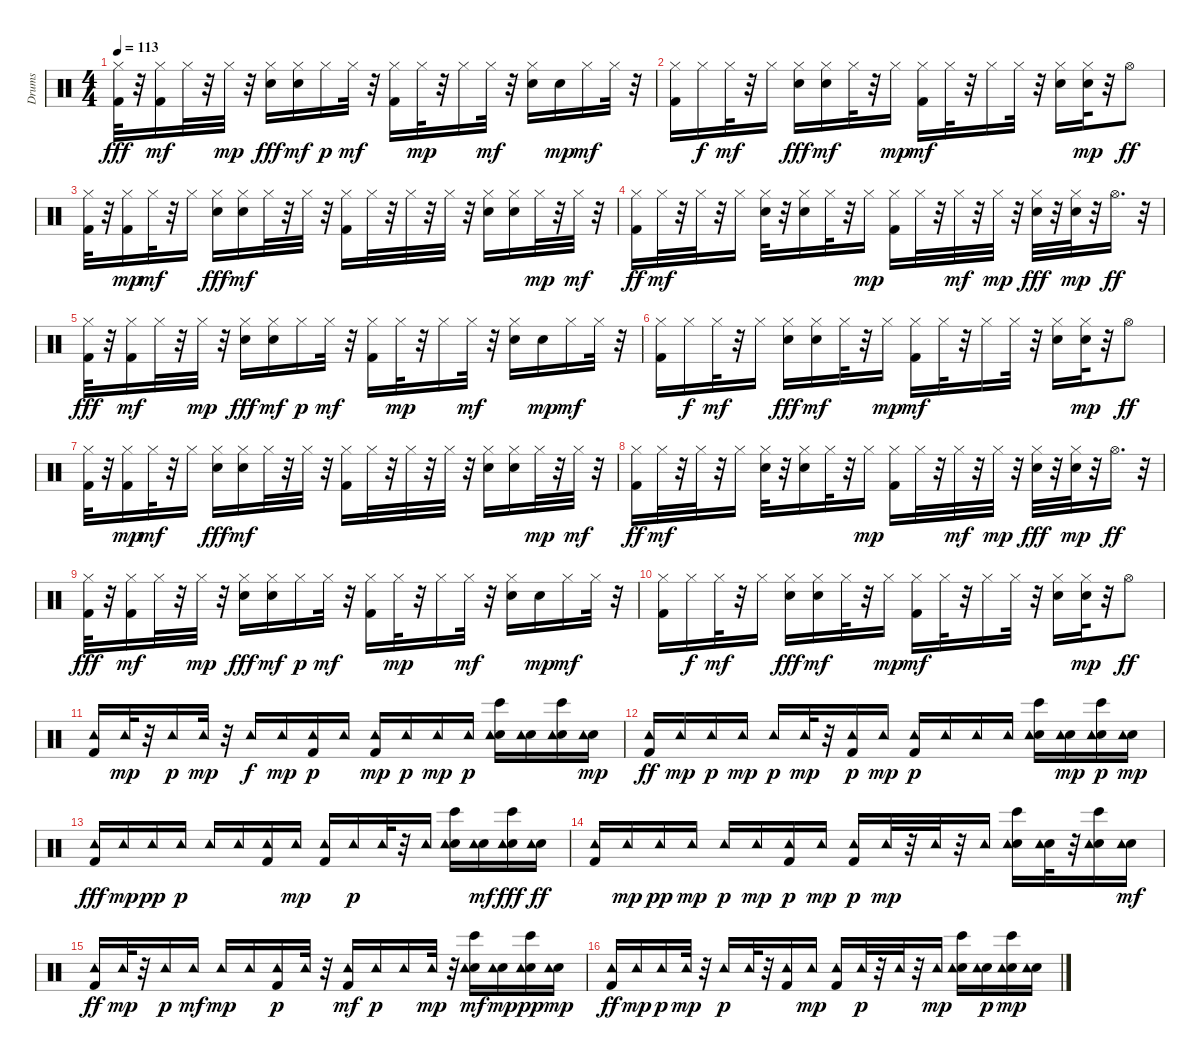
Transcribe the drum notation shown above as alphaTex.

\track ("Drums" "Drums") {instrument percussion}
\staff {score}
\articulation defaults
\ts (4 4)
\tempo 113
\clef neutral
\ks c
("Kick (hit) 2" "Hi-Hat (closed)").32{dy fff} r.32 ("Kick (hit) 2" "Hi-Hat (closed)").16{dy mf} "Hi-Hat (closed)".32 r.32 "Hi-Hat (closed)".32{dy mp} r.32 ("Electric Snare (hit)" "Hi-Hat (closed)").16{dy fff} ("Electric Snare (hit)" "Hi-Hat (closed)").16{dy mf} "Hi-Hat (closed)".16{dy p} "Hi-Hat (closed)".32{dy mf} r.32 ("Kick (hit) 2" "Hi-Hat (closed)").16 "Hi-Hat (closed)".32{dy mp} r.32 "Hi-Hat (closed)".16 "Hi-Hat (closed)".32{dy mf} r.32 ("Electric Snare (hit)" "Hi-Hat (closed)").16 "Electric Snare (hit)".16{dy mp} "Hi-Hat (closed)".16{dy mf} "Hi-Hat (closed)".32 r.32 |
("Kick (hit) 2" "Hi-Hat (closed)").16 "Hi-Hat (closed)".16{dy f} "Hi-Hat (closed)".32{dy mf} r.32 "Hi-Hat (closed)".16 ("Electric Snare (hit)" "Hi-Hat (closed)").16{dy fff} ("Electric Snare (hit)" "Hi-Hat (closed)").16{dy mf} "Hi-Hat (closed)".32 r.32 "Hi-Hat (closed)".16{dy mp} ("Kick (hit) 2" "Hi-Hat (closed)").16{dy mf} "Hi-Hat (closed)".32 r.32 "Hi-Hat (closed)".16 "Hi-Hat (closed)".32 r.32 ("Electric Snare (hit)" "Hi-Hat (closed)").16 ("Electric Snare (hit)" "Hi-Hat (closed)").32{dy mp} r.32 "Hi-Hat (open)".8{dy ff} |
("Kick (hit) 2" "Hi-Hat (closed)").32 r.32 ("Kick (hit) 2" "Hi-Hat (closed)").16{dy mp} "Hi-Hat (closed)".32{dy mf} r.32 "Hi-Hat (closed)".16 ("Electric Snare (hit)" "Hi-Hat (closed)").16{dy fff} ("Electric Snare (hit)" "Hi-Hat (closed)").16{dy mf} "Hi-Hat (closed)".32 r.32 "Hi-Hat (closed)".32 r.32 ("Kick (hit) 2" "Hi-Hat (closed)").16 "Hi-Hat (closed)".32 r.32 "Hi-Hat (closed)".32 r.32 "Hi-Hat (closed)".32 r.32 ("Electric Snare (hit)" "Hi-Hat (closed)").16 ("Electric Snare (hit)" "Hi-Hat (closed)").16 "Hi-Hat (closed)".32{dy mp} r.32 "Hi-Hat (closed)".32{dy mf} r.32 |
("Kick (hit) 2" "Hi-Hat (closed)").16{dy ff} "Hi-Hat (closed)".32{dy mf} r.32 "Hi-Hat (closed)".32 r.32 "Hi-Hat (closed)".16 ("Electric Snare (hit)" "Hi-Hat (closed)").32 r.32 ("Electric Snare (hit)" "Hi-Hat (closed)").16 "Hi-Hat (closed)".32 r.32 "Hi-Hat (closed)".16{dy mp} ("Kick (hit) 2" "Hi-Hat (closed)").16 "Hi-Hat (closed)".32 r.32 "Hi-Hat (closed)".32{dy mf} r.32 "Hi-Hat (closed)".32{dy mp} r.32 ("Electric Snare (hit)" "Hi-Hat (closed)").32{dy fff} r.32 ("Electric Snare (hit)" "Hi-Hat (closed)").32{dy mp} r.32 "Hi-Hat (open)".16{d dy ff} r.32 |
("Kick (hit) 2" "Hi-Hat (closed)").32{dy fff} r.32 ("Kick (hit) 2" "Hi-Hat (closed)").16{dy mf} "Hi-Hat (closed)".32 r.32 "Hi-Hat (closed)".32{dy mp} r.32 ("Electric Snare (hit)" "Hi-Hat (closed)").16{dy fff} ("Electric Snare (hit)" "Hi-Hat (closed)").16{dy mf} "Hi-Hat (closed)".16{dy p} "Hi-Hat (closed)".32{dy mf} r.32 ("Kick (hit) 2" "Hi-Hat (closed)").16 "Hi-Hat (closed)".32{dy mp} r.32 "Hi-Hat (closed)".16 "Hi-Hat (closed)".32{dy mf} r.32 ("Electric Snare (hit)" "Hi-Hat (closed)").16 "Electric Snare (hit)".16{dy mp} "Hi-Hat (closed)".16{dy mf} "Hi-Hat (closed)".32 r.32 |
("Kick (hit) 2" "Hi-Hat (closed)").16 "Hi-Hat (closed)".16{dy f} "Hi-Hat (closed)".32{dy mf} r.32 "Hi-Hat (closed)".16 ("Electric Snare (hit)" "Hi-Hat (closed)").16{dy fff} ("Electric Snare (hit)" "Hi-Hat (closed)").16{dy mf} "Hi-Hat (closed)".32 r.32 "Hi-Hat (closed)".16{dy mp} ("Kick (hit) 2" "Hi-Hat (closed)").16{dy mf} "Hi-Hat (closed)".32 r.32 "Hi-Hat (closed)".16 "Hi-Hat (closed)".32 r.32 ("Electric Snare (hit)" "Hi-Hat (closed)").16 ("Electric Snare (hit)" "Hi-Hat (closed)").32{dy mp} r.32 "Hi-Hat (open)".8{dy ff} |
("Kick (hit) 2" "Hi-Hat (closed)").32 r.32 ("Kick (hit) 2" "Hi-Hat (closed)").16{dy mp} "Hi-Hat (closed)".32{dy mf} r.32 "Hi-Hat (closed)".16 ("Electric Snare (hit)" "Hi-Hat (closed)").16{dy fff} ("Electric Snare (hit)" "Hi-Hat (closed)").16{dy mf} "Hi-Hat (closed)".32 r.32 "Hi-Hat (closed)".32 r.32 ("Kick (hit) 2" "Hi-Hat (closed)").16 "Hi-Hat (closed)".32 r.32 "Hi-Hat (closed)".32 r.32 "Hi-Hat (closed)".32 r.32 ("Electric Snare (hit)" "Hi-Hat (closed)").16 ("Electric Snare (hit)" "Hi-Hat (closed)").16 "Hi-Hat (closed)".32{dy mp} r.32 "Hi-Hat (closed)".32{dy mf} r.32 |
("Kick (hit) 2" "Hi-Hat (closed)").16{dy ff} "Hi-Hat (closed)".32{dy mf} r.32 "Hi-Hat (closed)".32 r.32 "Hi-Hat (closed)".16 ("Electric Snare (hit)" "Hi-Hat (closed)").32 r.32 ("Electric Snare (hit)" "Hi-Hat (closed)").16 "Hi-Hat (closed)".32 r.32 "Hi-Hat (closed)".16{dy mp} ("Kick (hit) 2" "Hi-Hat (closed)").16 "Hi-Hat (closed)".32 r.32 "Hi-Hat (closed)".32{dy mf} r.32 "Hi-Hat (closed)".32{dy mp} r.32 ("Electric Snare (hit)" "Hi-Hat (closed)").32{dy fff} r.32 ("Electric Snare (hit)" "Hi-Hat (closed)").32{dy mp} r.32 "Hi-Hat (open)".16{d dy ff} r.32 |
("Kick (hit) 2" "Hi-Hat (closed)").32{dy fff} r.32 ("Kick (hit) 2" "Hi-Hat (closed)").16{dy mf} "Hi-Hat (closed)".32 r.32 "Hi-Hat (closed)".32{dy mp} r.32 ("Electric Snare (hit)" "Hi-Hat (closed)").16{dy fff} ("Electric Snare (hit)" "Hi-Hat (closed)").16{dy mf} "Hi-Hat (closed)".16{dy p} "Hi-Hat (closed)".32{dy mf} r.32 ("Kick (hit) 2" "Hi-Hat (closed)").16 "Hi-Hat (closed)".32{dy mp} r.32 "Hi-Hat (closed)".16 "Hi-Hat (closed)".32{dy mf} r.32 ("Electric Snare (hit)" "Hi-Hat (closed)").16 "Electric Snare (hit)".16{dy mp} "Hi-Hat (closed)".16{dy mf} "Hi-Hat (closed)".32 r.32 |
("Kick (hit) 2" "Hi-Hat (closed)").16 "Hi-Hat (closed)".16{dy f} "Hi-Hat (closed)".32{dy mf} r.32 "Hi-Hat (closed)".16 ("Electric Snare (hit)" "Hi-Hat (closed)").16{dy fff} ("Electric Snare (hit)" "Hi-Hat (closed)").16{dy mf} "Hi-Hat (closed)".32 r.32 "Hi-Hat (closed)".16{dy mp} ("Kick (hit) 2" "Hi-Hat (closed)").16{dy mf} "Hi-Hat (closed)".32 r.32 "Hi-Hat (closed)".16 "Hi-Hat (closed)".32 r.32 ("Electric Snare (hit)" "Hi-Hat (closed)").16 ("Electric Snare (hit)" "Hi-Hat (closed)").32{dy mp} r.32 "Hi-Hat (open)".8{dy ff} |
("Kick (hit) 2" "Tambourine (hit)").16 "Tambourine (hit)".32{dy mp} r.32 "Tambourine (hit)".16{dy p} "Tambourine (hit)".32{dy mp} r.32 "Tambourine (hit)".16{dy f} "Tambourine (hit)".16{dy mp} ("Kick (hit) 2" "Tambourine (hit)").16{dy p} "Tambourine (hit)".16 ("Kick (hit) 2" "Tambourine (hit)").16{dy mp} "Tambourine (hit)".16{dy p} "Tambourine (hit)".16{dy mp} "Tambourine (hit)".16{dy p} ("Electric Snare (hit)" "Bongo High (hit)" "Tambourine (hit)").16 ("Electric Snare (hit)" "Tambourine (hit)").16 ("Electric Snare (hit)" "Bongo High (hit)" "Tambourine (hit)").16 ("Electric Snare (hit)" "Tambourine (hit)").16{dy mp} |
("Kick (hit) 2" "Tambourine (hit)").16{dy ff} "Tambourine (hit)".16{dy mp} "Tambourine (hit)".16{dy p} "Tambourine (hit)".16{dy mp} "Tambourine (hit)".16{dy p} "Tambourine (hit)".32{dy mp} r.32 ("Kick (hit) 2" "Tambourine (hit)").16{dy p} "Tambourine (hit)".16{dy mp} ("Kick (hit) 2" "Tambourine (hit)").16{dy p} "Tambourine (hit)".16 "Tambourine (hit)".16 "Tambourine (hit)".16 ("Electric Snare (hit)" "Bongo High (hit)" "Tambourine (hit)").16 ("Electric Snare (hit)" "Tambourine (hit)").16{dy mp} ("Electric Snare (hit)" "Bongo High (hit)" "Tambourine (hit)").16{dy p} ("Electric Snare (hit)" "Tambourine (hit)").16{dy mp} |
("Kick (hit) 2" "Tambourine (hit)").16{dy fff} "Tambourine (hit)".16{dy mp} "Tambourine (hit)".16{dy pp} "Tambourine (hit)".16{dy p} "Tambourine (hit)".16 "Tambourine (hit)".16 ("Kick (hit) 2" "Tambourine (hit)").16 "Tambourine (hit)".16{dy mp} ("Kick (hit) 2" "Tambourine (hit)").16 "Tambourine (hit)".16{dy p} "Tambourine (hit)".32 r.32 "Tambourine (hit)".16 ("Electric Snare (hit)" "Bongo High (hit)" "Tambourine (hit)").16 ("Electric Snare (hit)" "Tambourine (hit)").16{dy mf} ("Electric Snare (hit)" "Bongo High (hit)" "Tambourine (hit)").16{dy fff} ("Electric Snare (hit)" "Tambourine (hit)").16{dy ff} |
("Kick (hit) 2" "Tambourine (hit)").16 "Tambourine (hit)".16{dy mp} "Tambourine (hit)".16{dy pp} "Tambourine (hit)".16{dy mp} "Tambourine (hit)".16{dy p} "Tambourine (hit)".16{dy mp} ("Kick (hit) 2" "Tambourine (hit)").16{dy p} "Tambourine (hit)".16{dy mp} ("Kick (hit) 2" "Tambourine (hit)").16{dy p} "Tambourine (hit)".32{dy mp} r.32 "Tambourine (hit)".32 r.32 "Tambourine (hit)".16 ("Electric Snare (hit)" "Bongo High (hit)" "Tambourine (hit)").16 ("Electric Snare (hit)" "Tambourine (hit)").32 r.32 ("Electric Snare (hit)" "Bongo High (hit)" "Tambourine (hit)").16 ("Electric Snare (hit)" "Tambourine (hit)").16{dy mf} |
("Kick (hit) 2" "Tambourine (hit)").16{dy ff} "Tambourine (hit)".32{dy mp} r.32 "Tambourine (hit)".16{dy p} "Tambourine (hit)".16{dy mf} "Tambourine (hit)".16{dy mp} "Tambourine (hit)".16 ("Kick (hit) 2" "Tambourine (hit)").16{dy p} "Tambourine (hit)".32 r.32 ("Kick (hit) 2" "Tambourine (hit)").16{dy mf} "Tambourine (hit)".16{dy p} "Tambourine (hit)".16 "Tambourine (hit)".32{dy mp} r.32 ("Electric Snare (hit)" "Bongo High (hit)" "Tambourine (hit)").16{dy mf} ("Electric Snare (hit)" "Tambourine (hit)").16{dy mp} ("Electric Snare (hit)" "Bongo High (hit)" "Tambourine (hit)").16{dy pp} ("Electric Snare (hit)" "Tambourine (hit)").16{dy mp} |
("Kick (hit) 2" "Tambourine (hit)").16{dy ff} "Tambourine (hit)".16{dy mp} "Tambourine (hit)".16{dy p} "Tambourine (hit)".32{dy mp} r.32 "Tambourine (hit)".16{dy p} "Tambourine (hit)".32 r.32 ("Kick (hit) 2" "Tambourine (hit)").16 "Tambourine (hit)".16{dy mp} ("Kick (hit) 2" "Tambourine (hit)").16 "Tambourine (hit)".32{dy p} r.32 "Tambourine (hit)".32 r.32 "Tambourine (hit)".16{dy mp} ("Electric Snare (hit)" "Bongo High (hit)" "Tambourine (hit)").16 ("Electric Snare (hit)" "Tambourine (hit)").16{dy p} ("Electric Snare (hit)" "Bongo High (hit)" "Tambourine (hit)").16{dy mp} ("Electric Snare (hit)" "Tambourine (hit)").16
